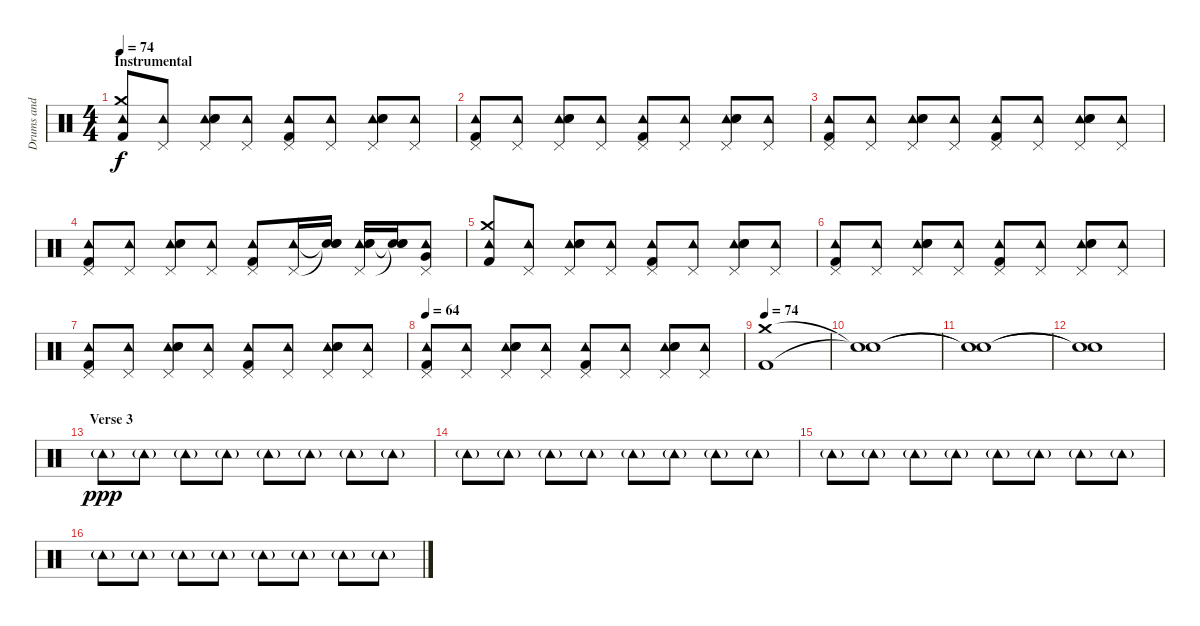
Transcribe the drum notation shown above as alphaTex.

\track ("Drums and Percussion" "Drums and ") {instrument percussion}
\staff {score}
\articulation defaults
\ts (4 4)
\section ("" "Instrumental")
\tempo 74
\clef neutral
\ks c
("Tambourine (hit)" "Crash medium (hit)" "Kick (hit) 2").8{dy f} ("Tambourine (hit)" "Pedal Hi-Hat (hit)").8 ("Tambourine (hit)" "Pedal Hi-Hat (hit)" "Electric Snare (hit)" "Hand Clap (hit)").8 ("Tambourine (hit)" "Pedal Hi-Hat (hit)").8 ("Tambourine (hit)" "Pedal Hi-Hat (hit)" "Kick (hit) 2").8 ("Tambourine (hit)" "Pedal Hi-Hat (hit)").8 ("Tambourine (hit)" "Pedal Hi-Hat (hit)" "Electric Snare (hit)" "Hand Clap (hit)").8 ("Tambourine (hit)" "Pedal Hi-Hat (hit)").8 |
("Tambourine (hit)" "Pedal Hi-Hat (hit)" "Kick (hit) 2").8 ("Tambourine (hit)" "Pedal Hi-Hat (hit)").8 ("Tambourine (hit)" "Pedal Hi-Hat (hit)" "Electric Snare (hit)" "Hand Clap (hit)").8 ("Tambourine (hit)" "Pedal Hi-Hat (hit)").8 ("Tambourine (hit)" "Pedal Hi-Hat (hit)" "Kick (hit) 2").8 ("Tambourine (hit)" "Pedal Hi-Hat (hit)").8 ("Tambourine (hit)" "Pedal Hi-Hat (hit)" "Electric Snare (hit)" "Hand Clap (hit)").8 ("Tambourine (hit)" "Pedal Hi-Hat (hit)").8 |
("Tambourine (hit)" "Pedal Hi-Hat (hit)" "Kick (hit) 2").8 ("Tambourine (hit)" "Pedal Hi-Hat (hit)").8 ("Tambourine (hit)" "Pedal Hi-Hat (hit)" "Electric Snare (hit)" "Hand Clap (hit)").8 ("Tambourine (hit)" "Pedal Hi-Hat (hit)").8 ("Tambourine (hit)" "Pedal Hi-Hat (hit)" "Kick (hit) 2").8 ("Tambourine (hit)" "Pedal Hi-Hat (hit)").8 ("Tambourine (hit)" "Pedal Hi-Hat (hit)" "Electric Snare (hit)" "Hand Clap (hit)").8 ("Tambourine (hit)" "Pedal Hi-Hat (hit)").8 |
("Tambourine (hit)" "Pedal Hi-Hat (hit)" "Kick (hit) 2").8 ("Tambourine (hit)" "Pedal Hi-Hat (hit)").8 ("Tambourine (hit)" "Pedal Hi-Hat (hit)" "Electric Snare (hit)" "Hand Clap (hit)").8 ("Tambourine (hit)" "Pedal Hi-Hat (hit)").8 ("Tambourine (hit)" "Pedal Hi-Hat (hit)" "Kick (hit) 2").8 ("Tambourine (hit)" "Pedal Hi-Hat (hit)").16 ("Snare (hit)"{t} "Snare (hit)"{t} "Electric Snare (hit)").16 ("Tambourine (hit)" "Pedal Hi-Hat (hit)" "Electric Snare (hit)" "Hand Clap (hit)").16 ("Snare (hit)"{t} "Snare (hit)"{t} "Electric Snare (hit)").16 ("Tambourine (hit)" "Pedal Hi-Hat (hit)" "Very Low Tom (hit)").8 |
("Tambourine (hit)" "Crash medium (hit)" "Kick (hit) 2").8 ("Tambourine (hit)" "Pedal Hi-Hat (hit)").8 ("Tambourine (hit)" "Pedal Hi-Hat (hit)" "Electric Snare (hit)" "Hand Clap (hit)").8 ("Tambourine (hit)" "Pedal Hi-Hat (hit)").8 ("Tambourine (hit)" "Pedal Hi-Hat (hit)" "Kick (hit) 2").8 ("Tambourine (hit)" "Pedal Hi-Hat (hit)").8 ("Tambourine (hit)" "Pedal Hi-Hat (hit)" "Electric Snare (hit)" "Hand Clap (hit)").8 ("Tambourine (hit)" "Pedal Hi-Hat (hit)").8 |
("Tambourine (hit)" "Pedal Hi-Hat (hit)" "Kick (hit) 2").8 ("Tambourine (hit)" "Pedal Hi-Hat (hit)").8 ("Tambourine (hit)" "Pedal Hi-Hat (hit)" "Electric Snare (hit)" "Hand Clap (hit)").8 ("Tambourine (hit)" "Pedal Hi-Hat (hit)").8 ("Tambourine (hit)" "Pedal Hi-Hat (hit)" "Kick (hit) 2").8 ("Tambourine (hit)" "Pedal Hi-Hat (hit)").8 ("Tambourine (hit)" "Pedal Hi-Hat (hit)" "Electric Snare (hit)" "Hand Clap (hit)").8 ("Tambourine (hit)" "Pedal Hi-Hat (hit)").8 |
("Tambourine (hit)" "Pedal Hi-Hat (hit)" "Kick (hit) 2").8 ("Tambourine (hit)" "Pedal Hi-Hat (hit)").8 ("Tambourine (hit)" "Pedal Hi-Hat (hit)" "Electric Snare (hit)" "Hand Clap (hit)").8 ("Tambourine (hit)" "Pedal Hi-Hat (hit)").8 ("Tambourine (hit)" "Pedal Hi-Hat (hit)" "Kick (hit) 2").8 ("Tambourine (hit)" "Pedal Hi-Hat (hit)").8 ("Tambourine (hit)" "Pedal Hi-Hat (hit)" "Electric Snare (hit)" "Hand Clap (hit)").8 ("Tambourine (hit)" "Pedal Hi-Hat (hit)").8 |
\tempo 64
("Tambourine (hit)" "Pedal Hi-Hat (hit)" "Kick (hit) 2").8 ("Tambourine (hit)" "Pedal Hi-Hat (hit)").8 ("Tambourine (hit)" "Pedal Hi-Hat (hit)" "Electric Snare (hit)" "Hand Clap (hit)").8 ("Tambourine (hit)" "Pedal Hi-Hat (hit)").8 ("Tambourine (hit)" "Pedal Hi-Hat (hit)" "Kick (hit) 2").8 ("Tambourine (hit)" "Pedal Hi-Hat (hit)").8 ("Tambourine (hit)" "Pedal Hi-Hat (hit)" "Electric Snare (hit)" "Hand Clap (hit)").8 ("Tambourine (hit)" "Pedal Hi-Hat (hit)").8 |
\tempo 74
("Crash medium (hit)" "Kick (hit) 2").1{volume 0} |
("Snare (hit)"{t} "Snare (hit)"{t}).1 |
("Snare (hit)"{t} "Snare (hit)"{t}).1 |
("Snare (hit)"{t} "Snare (hit)"{t}).1 |
\section ("" "Verse 3")
"Tambourine (hit)"{g}.8{dy ppp volume 13} "Tambourine (hit)"{g}.8 "Tambourine (hit)"{g}.8 "Tambourine (hit)"{g}.8 "Tambourine (hit)"{g}.8 "Tambourine (hit)"{g}.8 "Tambourine (hit)"{g}.8 "Tambourine (hit)"{g}.8 |
"Tambourine (hit)"{g}.8 "Tambourine (hit)"{g}.8 "Tambourine (hit)"{g}.8 "Tambourine (hit)"{g}.8 "Tambourine (hit)"{g}.8 "Tambourine (hit)"{g}.8 "Tambourine (hit)"{g}.8 "Tambourine (hit)"{g}.8 |
"Tambourine (hit)"{g}.8 "Tambourine (hit)"{g}.8 "Tambourine (hit)"{g}.8 "Tambourine (hit)"{g}.8 "Tambourine (hit)"{g}.8 "Tambourine (hit)"{g}.8 "Tambourine (hit)"{g}.8 "Tambourine (hit)"{g}.8 |
"Tambourine (hit)"{g}.8 "Tambourine (hit)"{g}.8 "Tambourine (hit)"{g}.8 "Tambourine (hit)"{g}.8 "Tambourine (hit)"{g}.8 "Tambourine (hit)"{g}.8 "Tambourine (hit)"{g}.8 "Tambourine (hit)"{g}.8
